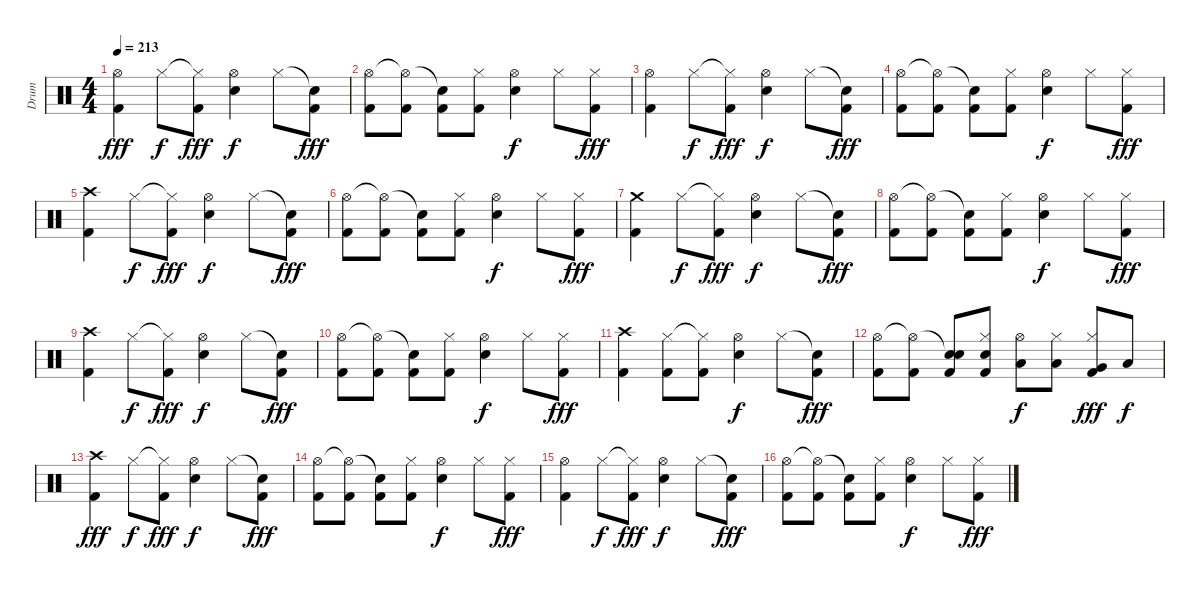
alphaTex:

\track ("Drum" "Drum") {instrument percussion}
\staff {score}
\articulation defaults
\ts (4 4)
\tempo 213
\clef neutral
\ks c
("Hi-Hat (open)" "Kick (hit) 2").4{dy fff} "Hi-Hat (closed)".8{dy f} ("Hi-Hat (closed)"{t} "Kick (hit) 2").8{dy fff} ("Hi-Hat (open)" "Snare (hit) 2").4{dy f} "Hi-Hat (closed)".8 ("Snare (hit)"{t} "Kick (hit) 2").8{dy fff} |
("Hi-Hat (open)" "Kick (hit) 2").8 ("Hi-Hat (open)"{t} "Kick (hit) 2").8 ("Snare (hit)"{t} "Kick (hit) 2").8 ("Hi-Hat (closed)" "Kick (hit) 2").8 ("Hi-Hat (open)" "Snare (hit) 2").4{dy f} "Hi-Hat (closed)".8 ("Hi-Hat (closed)" "Kick (hit) 2").8{dy fff} |
("Hi-Hat (open)" "Kick (hit) 2").4 "Hi-Hat (closed)".8{dy f} ("Hi-Hat (closed)"{t} "Kick (hit) 2").8{dy fff} ("Hi-Hat (open)" "Snare (hit) 2").4{dy f} "Hi-Hat (closed)".8 ("Snare (hit)"{t} "Kick (hit) 2").8{dy fff} |
("Hi-Hat (open)" "Kick (hit) 2").8 ("Hi-Hat (open)"{t} "Kick (hit) 2").8 ("Snare (hit)"{t} "Kick (hit) 2").8 ("Hi-Hat (closed)" "Kick (hit) 2").8 ("Hi-Hat (open)" "Snare (hit) 2").4{dy f} "Hi-Hat (closed)".8 ("Hi-Hat (closed)" "Kick (hit) 2").8{dy fff} |
("Crash high (hit)" "Kick (hit) 2").4 "Hi-Hat (closed)".8{dy f} ("Hi-Hat (closed)"{t} "Kick (hit) 2").8{dy fff} ("Hi-Hat (open)" "Snare (hit) 2").4{dy f} "Hi-Hat (closed)".8 ("Snare (hit)"{t} "Kick (hit) 2").8{dy fff} |
("Hi-Hat (open)" "Kick (hit) 2").8 ("Hi-Hat (open)"{t} "Kick (hit) 2").8 ("Snare (hit)"{t} "Kick (hit) 2").8 ("Hi-Hat (closed)" "Kick (hit) 2").8 ("Hi-Hat (open)" "Snare (hit) 2").4{dy f} "Hi-Hat (closed)".8 ("Hi-Hat (closed)" "Kick (hit) 2").8{dy fff} |
("Crash medium (hit)" "Kick (hit) 2").4 "Hi-Hat (closed)".8{dy f} ("Hi-Hat (closed)"{t} "Kick (hit) 2").8{dy fff} ("Hi-Hat (open)" "Snare (hit) 2").4{dy f} "Hi-Hat (closed)".8 ("Snare (hit)"{t} "Kick (hit) 2").8{dy fff} |
("Hi-Hat (open)" "Kick (hit) 2").8 ("Hi-Hat (open)"{t} "Kick (hit) 2").8 ("Snare (hit)"{t} "Kick (hit) 2").8 ("Hi-Hat (closed)" "Kick (hit) 2").8 ("Hi-Hat (open)" "Snare (hit) 2").4{dy f} "Hi-Hat (closed)".8 ("Hi-Hat (closed)" "Kick (hit) 2").8{dy fff} |
("Crash high (hit)" "Kick (hit) 2").4 "Hi-Hat (closed)".8{dy f} ("Hi-Hat (closed)"{t} "Kick (hit) 2").8{dy fff} ("Hi-Hat (open)" "Snare (hit) 2").4{dy f} "Hi-Hat (closed)".8 ("Snare (hit)"{t} "Kick (hit) 2").8{dy fff} |
("Hi-Hat (open)" "Kick (hit) 2").8 ("Hi-Hat (open)"{t} "Kick (hit) 2").8 ("Snare (hit)"{t} "Kick (hit) 2").8 ("Hi-Hat (closed)" "Kick (hit) 2").8 ("Hi-Hat (open)" "Snare (hit) 2").4{dy f} "Hi-Hat (closed)".8 ("Hi-Hat (closed)" "Kick (hit) 2").8{dy fff} |
("Crash high (hit)" "Kick (hit) 2").4 ("Hi-Hat (closed)" "Kick (hit) 2").8 ("Hi-Hat (closed)"{t} "Kick (hit) 2").8 ("Hi-Hat (open)" "Snare (hit) 2").4{dy f} "Hi-Hat (closed)".8 ("Snare (hit)"{t} "Kick (hit) 2").8{dy fff} |
("Hi-Hat (open)" "Kick (hit) 2").8 ("Hi-Hat (open)"{t} "Kick (hit) 2").8 ("Snare (hit)"{t} "Snare (hit) 2" "Kick (hit) 2").8 ("Hi-Hat (closed)" "Snare (hit) 2" "Kick (hit) 2").8 ("Hi-Hat (open)" "Low Tom (hit)").8{dy f} ("Hi-Hat (closed)" "Low Tom (hit)").8 ("Hi-Hat (closed)" "Very Low Tom (hit)" "Kick (hit) 2").8{dy fff} "Low Floor Tom (hit)".8{dy f} |
("Crash high (hit)" "Kick (hit) 2").4{dy fff} "Hi-Hat (closed)".8{dy f} ("Hi-Hat (closed)"{t} "Kick (hit) 2").8{dy fff} ("Hi-Hat (open)" "Snare (hit) 2").4{dy f} "Hi-Hat (closed)".8 ("Snare (hit)"{t} "Kick (hit) 2").8{dy fff} |
("Hi-Hat (open)" "Kick (hit) 2").8 ("Hi-Hat (open)"{t} "Kick (hit) 2").8 ("Snare (hit)"{t} "Kick (hit) 2").8 ("Hi-Hat (closed)" "Kick (hit) 2").8 ("Hi-Hat (open)" "Snare (hit) 2").4{dy f} "Hi-Hat (closed)".8 ("Hi-Hat (closed)" "Kick (hit) 2").8{dy fff} |
("Hi-Hat (open)" "Kick (hit) 2").4 "Hi-Hat (closed)".8{dy f} ("Hi-Hat (closed)"{t} "Kick (hit) 2").8{dy fff} ("Hi-Hat (open)" "Snare (hit) 2").4{dy f} "Hi-Hat (closed)".8 ("Snare (hit)"{t} "Kick (hit) 2").8{dy fff} |
("Hi-Hat (open)" "Kick (hit) 2").8 ("Hi-Hat (open)"{t} "Kick (hit) 2").8 ("Snare (hit)"{t} "Kick (hit) 2").8 ("Hi-Hat (closed)" "Kick (hit) 2").8 ("Hi-Hat (open)" "Snare (hit) 2").4{dy f} "Hi-Hat (closed)".8 ("Hi-Hat (closed)" "Kick (hit) 2").8{dy fff}
